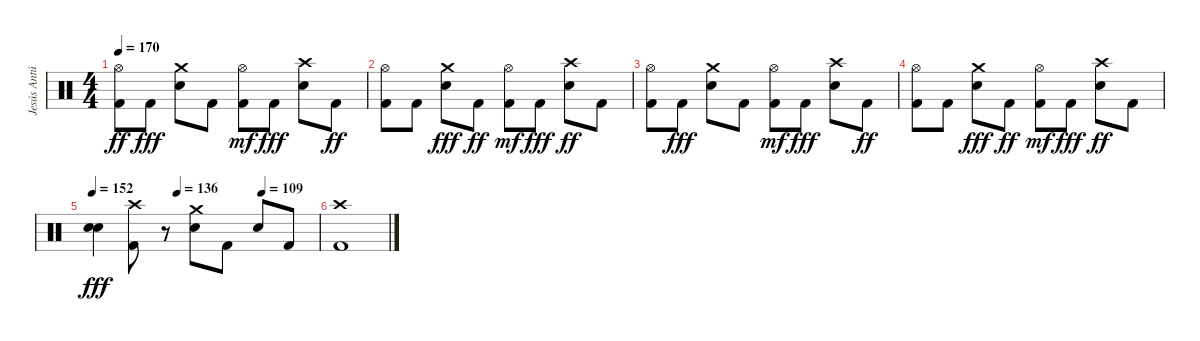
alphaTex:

\track ("Jesús Antúnez (Bateria)" "Jesús Antú") {instrument percussion}
\staff {score}
\articulation defaults
\ts (4 4)
\tempo 170
\clef neutral
\ks c
("Kick (hit) 2" "Hi-Hat (open)").8{dy ff} "Kick (hit) 2".8{dy fff} ("Electric Snare (hit)" "Crash medium (hit)").8 "Kick (hit) 2".8 ("Kick (hit) 2" "Hi-Hat (open)").8{dy mf} "Kick (hit) 2".8{dy fff} ("Electric Snare (hit)" "Crash high (hit)").8 "Kick (hit) 2".8{dy ff} |
("Kick (hit) 2" "Hi-Hat (open)").8 "Kick (hit) 2".8 ("Electric Snare (hit)" "Crash medium (hit)").8{dy fff} "Kick (hit) 2".8{dy ff} ("Kick (hit) 2" "Hi-Hat (open)").8{dy mf} "Kick (hit) 2".8{dy fff} ("Electric Snare (hit)" "Crash high (hit)").8{dy ff} "Kick (hit) 2".8 |
("Kick (hit) 2" "Hi-Hat (open)").8 "Kick (hit) 2".8{dy fff} ("Electric Snare (hit)" "Crash medium (hit)").8 "Kick (hit) 2".8 ("Kick (hit) 2" "Hi-Hat (open)").8{dy mf} "Kick (hit) 2".8{dy fff} ("Electric Snare (hit)" "Crash high (hit)").8 "Kick (hit) 2".8{dy ff} |
("Kick (hit) 2" "Hi-Hat (open)").8 "Kick (hit) 2".8 ("Electric Snare (hit)" "Crash medium (hit)").8{dy fff} "Kick (hit) 2".8{dy ff} ("Kick (hit) 2" "Hi-Hat (open)").8{dy mf} "Kick (hit) 2".8{dy fff} ("Electric Snare (hit)" "Crash high (hit)").8{dy ff} "Kick (hit) 2".8 |
\tempo 152
\tempo (136 0.375)
\tempo (109 0.75)
("Electric Snare (hit)" "Electric Snare (hit)").4{dy fff} ("Crash high (hit)" "Kick (hit) 2").8 r.8 ("Electric Snare (hit)" "Crash medium (hit)").8 "Kick (hit) 2".8 "Electric Snare (hit)".8 "Kick (hit) 2".8 |
("Kick (hit) 2" "Crash high (hit)").1
